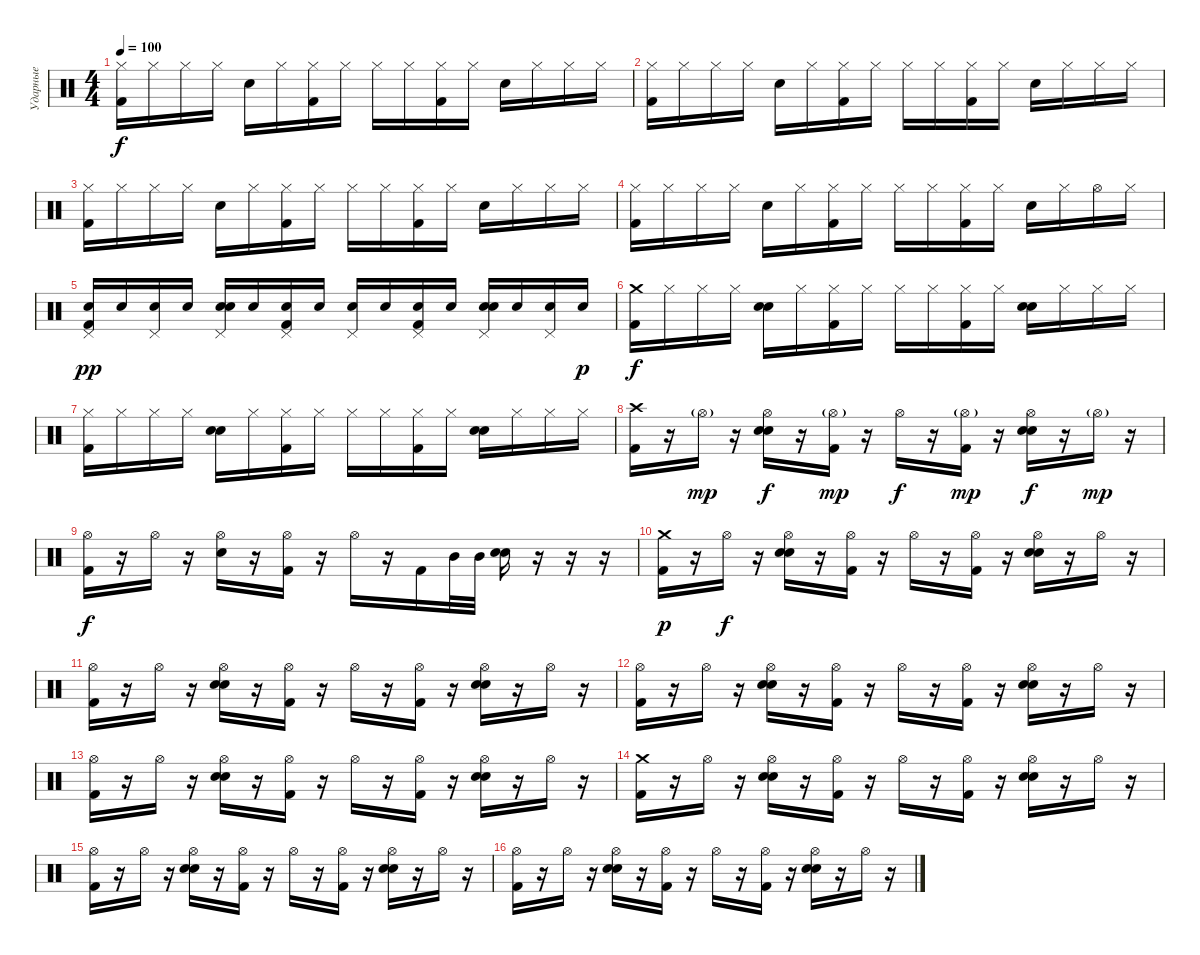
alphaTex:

\track ("Ударные" "Ударные") {instrument percussion}
\staff {score}
\articulation defaults
\ts (4 4)
\tempo 100
\clef neutral
\ks c
("Hi-Hat (closed)" "Kick (hit) 2").16{dy f} "Hi-Hat (closed)".16 "Hi-Hat (closed)".16 "Hi-Hat (closed)".16 "Electric Snare (hit)".16 "Hi-Hat (closed)".16 ("Hi-Hat (closed)" "Kick (hit) 2").16 "Hi-Hat (closed)".16 "Hi-Hat (closed)".16 "Hi-Hat (closed)".16 ("Hi-Hat (closed)" "Kick (hit) 2").16 "Hi-Hat (closed)".16 "Electric Snare (hit)".16 "Hi-Hat (closed)".16 "Hi-Hat (closed)".16 "Hi-Hat (closed)".16 |
("Hi-Hat (closed)" "Kick (hit) 2").16 "Hi-Hat (closed)".16 "Hi-Hat (closed)".16 "Hi-Hat (closed)".16 "Electric Snare (hit)".16 "Hi-Hat (closed)".16 ("Hi-Hat (closed)" "Kick (hit) 2").16 "Hi-Hat (closed)".16 "Hi-Hat (closed)".16 "Hi-Hat (closed)".16 ("Hi-Hat (closed)" "Kick (hit) 2").16 "Hi-Hat (closed)".16 "Electric Snare (hit)".16 "Hi-Hat (closed)".16 "Hi-Hat (closed)".16 "Hi-Hat (closed)".16 |
("Hi-Hat (closed)" "Kick (hit) 2").16 "Hi-Hat (closed)".16 "Hi-Hat (closed)".16 "Hi-Hat (closed)".16 "Electric Snare (hit)".16 "Hi-Hat (closed)".16 ("Hi-Hat (closed)" "Kick (hit) 2").16 "Hi-Hat (closed)".16 "Hi-Hat (closed)".16 "Hi-Hat (closed)".16 ("Hi-Hat (closed)" "Kick (hit) 2").16 "Hi-Hat (closed)".16 "Electric Snare (hit)".16 "Hi-Hat (closed)".16 "Hi-Hat (closed)".16 "Hi-Hat (closed)".16 |
("Hi-Hat (closed)" "Kick (hit) 2").16 "Hi-Hat (closed)".16 "Hi-Hat (closed)".16 "Hi-Hat (closed)".16 "Electric Snare (hit)".16 "Hi-Hat (closed)".16 ("Hi-Hat (closed)" "Kick (hit) 2").16 "Hi-Hat (closed)".16 "Hi-Hat (closed)".16 "Hi-Hat (closed)".16 ("Hi-Hat (closed)" "Kick (hit) 2").16 "Hi-Hat (closed)".16 "Electric Snare (hit)".16 "Hi-Hat (closed)".16 "Hi-Hat (open)".16 "Hi-Hat (closed)".16 |
("Pedal Hi-Hat (hit)" "Electric Snare (hit)" "Kick (hit) 2").16{dy pp} "Electric Snare (hit)".16 ("Pedal Hi-Hat (hit)" "Electric Snare (hit)").16 "Electric Snare (hit)".16 ("Pedal Hi-Hat (hit)" "Electric Snare (hit)" "Electric Snare (hit)").16 "Electric Snare (hit)".16 ("Pedal Hi-Hat (hit)" "Electric Snare (hit)" "Kick (hit) 2").16 "Electric Snare (hit)".16 ("Pedal Hi-Hat (hit)" "Electric Snare (hit)").16 "Electric Snare (hit)".16 ("Pedal Hi-Hat (hit)" "Electric Snare (hit)" "Kick (hit) 2").16 "Electric Snare (hit)".16 ("Pedal Hi-Hat (hit)" "Electric Snare (hit)" "Electric Snare (hit)").16 "Electric Snare (hit)".16 ("Pedal Hi-Hat (hit)" "Electric Snare (hit)").16 "Electric Snare (hit)".16{dy p} |
("Crash medium (hit)" "Kick (hit) 2").16{dy f} "Hi-Hat (closed)".16 "Hi-Hat (closed)".16 "Hi-Hat (closed)".16 ("Electric Snare (hit)" "Electric Snare (hit)").16 "Hi-Hat (closed)".16 ("Hi-Hat (closed)" "Kick (hit) 2").16 "Hi-Hat (closed)".16 "Hi-Hat (closed)".16 "Hi-Hat (closed)".16 ("Hi-Hat (closed)" "Kick (hit) 2").16 "Hi-Hat (closed)".16 ("Electric Snare (hit)" "Electric Snare (hit)").16 "Hi-Hat (closed)".16 "Hi-Hat (closed)".16 "Hi-Hat (closed)".16 |
("Hi-Hat (closed)" "Kick (hit) 2").16 "Hi-Hat (closed)".16 "Hi-Hat (closed)".16 "Hi-Hat (closed)".16 ("Electric Snare (hit)" "Electric Snare (hit)").16 "Hi-Hat (closed)".16 ("Hi-Hat (closed)" "Kick (hit) 2").16 "Hi-Hat (closed)".16 "Hi-Hat (closed)".16 "Hi-Hat (closed)".16 ("Hi-Hat (closed)" "Kick (hit) 2").16 "Hi-Hat (closed)".16 ("Electric Snare (hit)" "Electric Snare (hit)").16 "Hi-Hat (closed)".16 "Hi-Hat (closed)".16 "Hi-Hat (closed)".16 |
("Crash high (hit)" "Kick (hit) 2").16 r.16 "Hi-Hat (open)"{g}.16{dy mp} r.16 ("Hi-Hat (open)" "Electric Snare (hit)" "Electric Snare (hit)").16{dy f} r.16 ("Hi-Hat (open)"{g} "Kick (hit) 2").16{dy mp} r.16 "Hi-Hat (open)".16{dy f} r.16 ("Hi-Hat (open)"{g} "Kick (hit) 2").16{dy mp} r.16 ("Hi-Hat (open)" "Electric Snare (hit)" "Electric Snare (hit)").16{dy f} r.16 "Hi-Hat (open)"{g}.16{dy mp} r.16 |
("Hi-Hat (open)" "Kick (hit) 2").16{dy f} r.16 "Hi-Hat (open)".16 r.16 ("Hi-Hat (open)" "Electric Snare (hit)").16 r.16 ("Hi-Hat (open)" "Kick (hit) 2").16 r.16 "Hi-Hat (open)".16 r.16 "Kick (hit) 2".16 "Mid Tom (hit)".32 "Mid Tom (hit)".32 ("Electric Snare (hit)" "Electric Snare (hit)").16 r.16 r.16 r.16 |
("Crash medium (hit)" "Kick (hit) 2").16{dy p} r.16 "Hi-Hat (open)".16{dy f} r.16 ("Hi-Hat (open)" "Electric Snare (hit)" "Electric Snare (hit)").16 r.16 ("Hi-Hat (open)" "Kick (hit) 2").16 r.16 "Hi-Hat (open)".16 r.16 ("Hi-Hat (open)" "Kick (hit) 2").16 r.16 ("Hi-Hat (open)" "Electric Snare (hit)" "Electric Snare (hit)").16 r.16 "Hi-Hat (open)".16 r.16 |
("Hi-Hat (open)" "Kick (hit) 2").16 r.16 "Hi-Hat (open)".16 r.16 ("Hi-Hat (open)" "Electric Snare (hit)" "Electric Snare (hit)").16 r.16 ("Hi-Hat (open)" "Kick (hit) 2").16 r.16 "Hi-Hat (open)".16 r.16 ("Hi-Hat (open)" "Kick (hit) 2").16 r.16 ("Hi-Hat (open)" "Electric Snare (hit)" "Electric Snare (hit)").16 r.16 "Hi-Hat (open)".16 r.16 |
("Hi-Hat (open)" "Kick (hit) 2").16 r.16 "Hi-Hat (open)".16 r.16 ("Hi-Hat (open)" "Electric Snare (hit)" "Electric Snare (hit)").16 r.16 ("Hi-Hat (open)" "Kick (hit) 2").16 r.16 "Hi-Hat (open)".16 r.16 ("Hi-Hat (open)" "Kick (hit) 2").16 r.16 ("Hi-Hat (open)" "Electric Snare (hit)" "Electric Snare (hit)").16 r.16 "Hi-Hat (open)".16 r.16 |
("Hi-Hat (open)" "Kick (hit) 2").16 r.16 "Hi-Hat (open)".16 r.16 ("Hi-Hat (open)" "Electric Snare (hit)" "Electric Snare (hit)").16 r.16 ("Hi-Hat (open)" "Kick (hit) 2").16 r.16 "Hi-Hat (open)".16 r.16 ("Hi-Hat (open)" "Kick (hit) 2").16 r.16 ("Hi-Hat (open)" "Electric Snare (hit)" "Electric Snare (hit)").16 r.16 "Hi-Hat (open)".16 r.16 |
("Crash medium (hit)" "Kick (hit) 2").16 r.16 "Hi-Hat (open)".16 r.16 ("Hi-Hat (open)" "Electric Snare (hit)" "Electric Snare (hit)").16 r.16 ("Hi-Hat (open)" "Kick (hit) 2").16 r.16 "Hi-Hat (open)".16 r.16 ("Hi-Hat (open)" "Kick (hit) 2").16 r.16 ("Hi-Hat (open)" "Electric Snare (hit)" "Electric Snare (hit)").16 r.16 "Hi-Hat (open)".16 r.16 |
("Hi-Hat (open)" "Kick (hit) 2").16 r.16 "Hi-Hat (open)".16 r.16 ("Hi-Hat (open)" "Electric Snare (hit)" "Electric Snare (hit)").16 r.16 ("Hi-Hat (open)" "Kick (hit) 2").16 r.16 "Hi-Hat (open)".16 r.16 ("Hi-Hat (open)" "Kick (hit) 2").16 r.16 ("Hi-Hat (open)" "Electric Snare (hit)" "Electric Snare (hit)").16 r.16 "Hi-Hat (open)".16 r.16 |
("Hi-Hat (open)" "Kick (hit) 2").16 r.16 "Hi-Hat (open)".16 r.16 ("Hi-Hat (open)" "Electric Snare (hit)" "Electric Snare (hit)").16 r.16 ("Hi-Hat (open)" "Kick (hit) 2").16 r.16 "Hi-Hat (open)".16 r.16 ("Hi-Hat (open)" "Kick (hit) 2").16 r.16 ("Hi-Hat (open)" "Electric Snare (hit)" "Electric Snare (hit)").16 r.16 "Hi-Hat (open)".16 r.16
